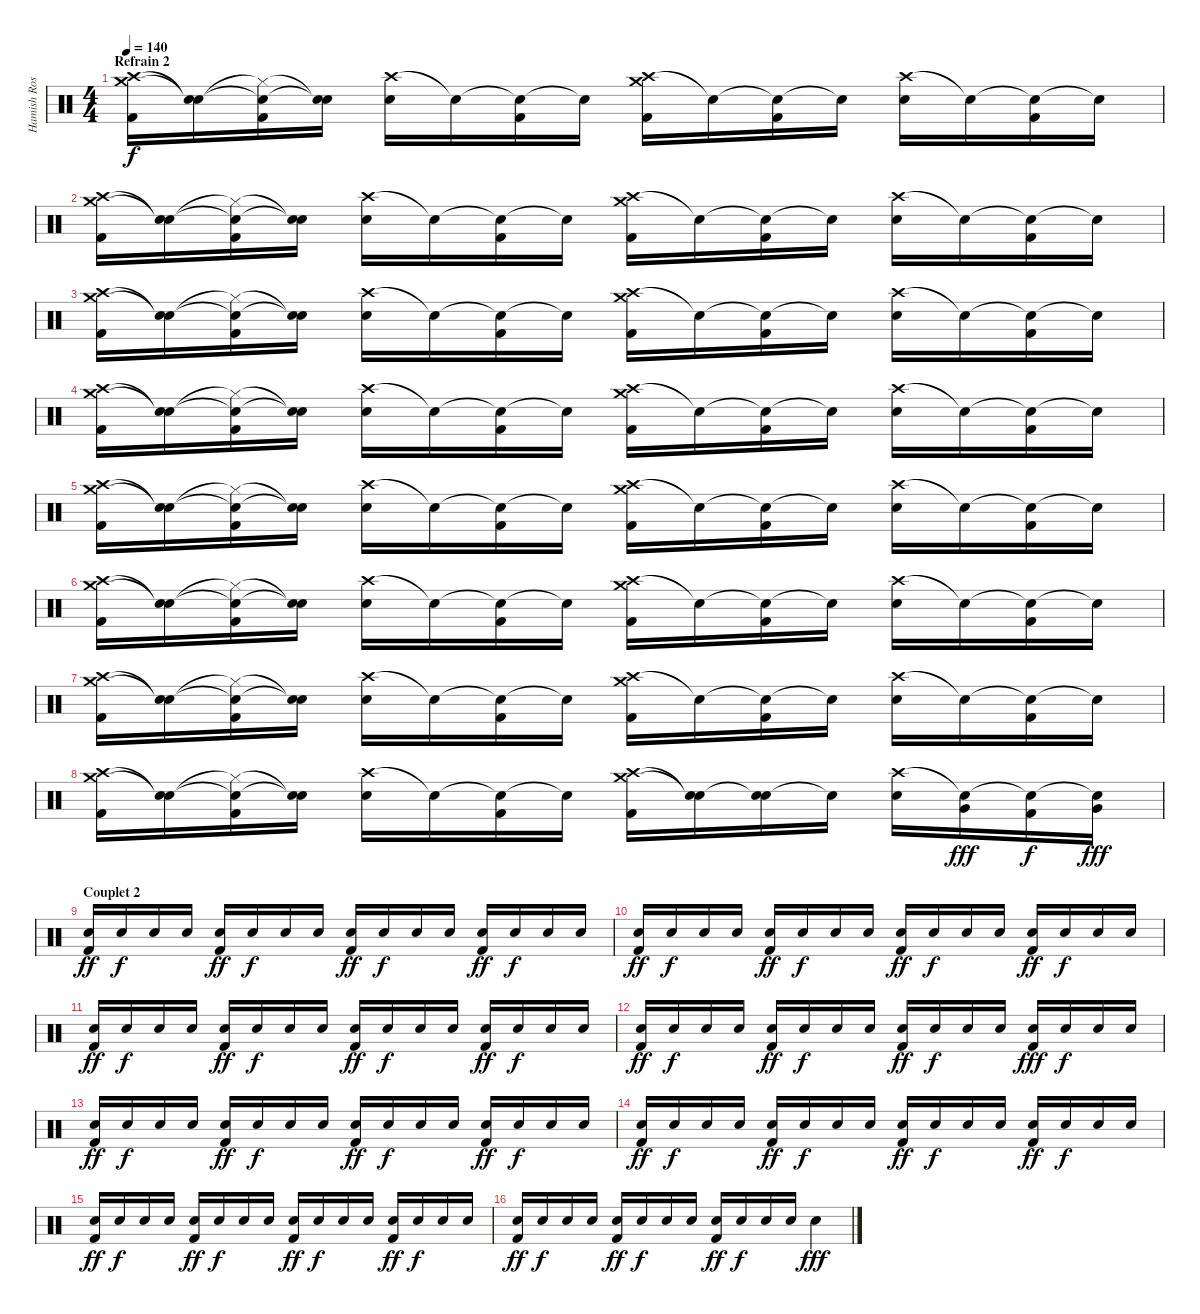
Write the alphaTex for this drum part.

\track ("Hamish Rosser" "Hamish Ros") {instrument percussion}
\staff {score}
\articulation defaults
\ts (4 4)
\section ("" "Refrain 2")
\tempo 140
\clef neutral
\ks c
("Crash high (hit)" "Crash medium (hit)" "Kick (hit) 2").16{dy f} ("Snare (hit)"{t} "Snare (hit)"{t}).16 ("Snare (hit)"{t} "Hi-Hat (closed)"{t} "Kick (hit) 2").16 ("Snare (hit)"{t} "Snare (hit)"{t}).16 ("Crash high (hit)" "Electric Snare (hit)").16 "Snare (hit)"{t}.16 ("Snare (hit)"{t} "Kick (hit) 2").16 "Snare (hit)"{t}.16 ("Crash high (hit)" "Crash medium (hit)" "Kick (hit) 2").16 "Snare (hit)"{t}.16 ("Snare (hit)"{t} "Kick (hit) 2").16 "Snare (hit)"{t}.16 ("Crash high (hit)" "Electric Snare (hit)").16 "Snare (hit)"{t}.16 ("Snare (hit)"{t} "Kick (hit) 2").16 "Snare (hit)"{t}.16 |
("Crash high (hit)" "Crash medium (hit)" "Kick (hit) 2").16 ("Snare (hit)"{t} "Snare (hit)"{t}).16 ("Snare (hit)"{t} "Hi-Hat (closed)"{t} "Kick (hit) 2").16 ("Snare (hit)"{t} "Snare (hit)"{t}).16 ("Crash high (hit)" "Electric Snare (hit)").16 "Snare (hit)"{t}.16 ("Snare (hit)"{t} "Kick (hit) 2").16 "Snare (hit)"{t}.16 ("Crash high (hit)" "Crash medium (hit)" "Kick (hit) 2").16 "Snare (hit)"{t}.16 ("Snare (hit)"{t} "Kick (hit) 2").16 "Snare (hit)"{t}.16 ("Crash high (hit)" "Electric Snare (hit)").16 "Snare (hit)"{t}.16 ("Snare (hit)"{t} "Kick (hit) 2").16 "Snare (hit)"{t}.16 |
("Crash high (hit)" "Crash medium (hit)" "Kick (hit) 2").16 ("Snare (hit)"{t} "Snare (hit)"{t}).16 ("Snare (hit)"{t} "Hi-Hat (closed)"{t} "Kick (hit) 2").16 ("Snare (hit)"{t} "Snare (hit)"{t}).16 ("Crash high (hit)" "Electric Snare (hit)").16 "Snare (hit)"{t}.16 ("Snare (hit)"{t} "Kick (hit) 2").16 "Snare (hit)"{t}.16 ("Crash high (hit)" "Crash medium (hit)" "Kick (hit) 2").16 "Snare (hit)"{t}.16 ("Snare (hit)"{t} "Kick (hit) 2").16 "Snare (hit)"{t}.16 ("Crash high (hit)" "Electric Snare (hit)").16 "Snare (hit)"{t}.16 ("Snare (hit)"{t} "Kick (hit) 2").16 "Snare (hit)"{t}.16 |
("Crash high (hit)" "Crash medium (hit)" "Kick (hit) 2").16 ("Snare (hit)"{t} "Snare (hit)"{t}).16 ("Snare (hit)"{t} "Hi-Hat (closed)"{t} "Kick (hit) 2").16 ("Snare (hit)"{t} "Snare (hit)"{t}).16 ("Crash high (hit)" "Electric Snare (hit)").16 "Snare (hit)"{t}.16 ("Snare (hit)"{t} "Kick (hit) 2").16 "Snare (hit)"{t}.16 ("Crash high (hit)" "Crash medium (hit)" "Kick (hit) 2").16 "Snare (hit)"{t}.16 ("Snare (hit)"{t} "Kick (hit) 2").16 "Snare (hit)"{t}.16 ("Crash high (hit)" "Electric Snare (hit)").16 "Snare (hit)"{t}.16 ("Snare (hit)"{t} "Kick (hit) 2").16 "Snare (hit)"{t}.16 |
("Crash high (hit)" "Crash medium (hit)" "Kick (hit) 2").16 ("Snare (hit)"{t} "Snare (hit)"{t}).16 ("Snare (hit)"{t} "Hi-Hat (closed)"{t} "Kick (hit) 2").16 ("Snare (hit)"{t} "Snare (hit)"{t}).16 ("Crash high (hit)" "Electric Snare (hit)").16 "Snare (hit)"{t}.16 ("Snare (hit)"{t} "Kick (hit) 2").16 "Snare (hit)"{t}.16 ("Crash high (hit)" "Crash medium (hit)" "Kick (hit) 2").16 "Snare (hit)"{t}.16 ("Snare (hit)"{t} "Kick (hit) 2").16 "Snare (hit)"{t}.16 ("Crash high (hit)" "Electric Snare (hit)").16 "Snare (hit)"{t}.16 ("Snare (hit)"{t} "Kick (hit) 2").16 "Snare (hit)"{t}.16 |
("Crash high (hit)" "Crash medium (hit)" "Kick (hit) 2").16 ("Snare (hit)"{t} "Snare (hit)"{t}).16 ("Snare (hit)"{t} "Hi-Hat (closed)"{t} "Kick (hit) 2").16 ("Snare (hit)"{t} "Snare (hit)"{t}).16 ("Crash high (hit)" "Electric Snare (hit)").16 "Snare (hit)"{t}.16 ("Snare (hit)"{t} "Kick (hit) 2").16 "Snare (hit)"{t}.16 ("Crash high (hit)" "Crash medium (hit)" "Kick (hit) 2").16 "Snare (hit)"{t}.16 ("Snare (hit)"{t} "Kick (hit) 2").16 "Snare (hit)"{t}.16 ("Crash high (hit)" "Electric Snare (hit)").16 "Snare (hit)"{t}.16 ("Snare (hit)"{t} "Kick (hit) 2").16 "Snare (hit)"{t}.16 |
("Crash high (hit)" "Crash medium (hit)" "Kick (hit) 2").16 ("Snare (hit)"{t} "Snare (hit)"{t}).16 ("Snare (hit)"{t} "Hi-Hat (closed)"{t} "Kick (hit) 2").16 ("Snare (hit)"{t} "Snare (hit)"{t}).16 ("Crash high (hit)" "Electric Snare (hit)").16 "Snare (hit)"{t}.16 ("Snare (hit)"{t} "Kick (hit) 2").16 "Snare (hit)"{t}.16 ("Crash high (hit)" "Crash medium (hit)" "Kick (hit) 2").16 "Snare (hit)"{t}.16 ("Snare (hit)"{t} "Kick (hit) 2").16 "Snare (hit)"{t}.16 ("Crash high (hit)" "Electric Snare (hit)").16 "Snare (hit)"{t}.16 ("Snare (hit)"{t} "Kick (hit) 2").16 "Snare (hit)"{t}.16 |
("Crash high (hit)" "Crash medium (hit)" "Kick (hit) 2").16 ("Snare (hit)"{t} "Snare (hit)"{t}).16 ("Snare (hit)"{t} "Hi-Hat (closed)"{t} "Kick (hit) 2").16 ("Snare (hit)"{t} "Snare (hit)"{t}).16 ("Crash high (hit)" "Electric Snare (hit)").16 "Snare (hit)"{t}.16 ("Snare (hit)"{t} "Kick (hit) 2").16 "Snare (hit)"{t}.16 ("Crash high (hit)" "Crash medium (hit)" "Kick (hit) 2").16 ("Snare (hit)"{t} "Snare (hit)"{t}).16 ("Snare (hit)"{t} "Electric Snare (hit)").16 "Snare (hit)"{t}.16 ("Crash high (hit)" "Electric Snare (hit)").16 ("Snare (hit)"{t} "Very Low Tom (hit)").16{dy fff} ("Snare (hit)"{t} "Kick (hit) 2").16{dy f} ("Snare (hit)"{t} "Very Low Tom (hit)").16{dy fff} |
\section ("" "Couplet 2")
("Electric Snare (hit)" "Kick (hit) 2").16{dy ff volume 0} "Electric Snare (hit)".16{dy f} "Electric Snare (hit)".16 "Electric Snare (hit)".16 ("Electric Snare (hit)" "Kick (hit) 2").16{dy ff} "Electric Snare (hit)".16{dy f} "Electric Snare (hit)".16 "Electric Snare (hit)".16 ("Electric Snare (hit)" "Kick (hit) 2").16{dy ff volume 1} "Electric Snare (hit)".16{dy f} "Electric Snare (hit)".16 "Electric Snare (hit)".16 ("Electric Snare (hit)" "Kick (hit) 2").16{dy ff} "Electric Snare (hit)".16{dy f} "Electric Snare (hit)".16 "Electric Snare (hit)".16 |
("Electric Snare (hit)" "Kick (hit) 2").16{dy ff volume 2} "Electric Snare (hit)".16{dy f} "Electric Snare (hit)".16 "Electric Snare (hit)".16 ("Electric Snare (hit)" "Kick (hit) 2").16{dy ff} "Electric Snare (hit)".16{dy f} "Electric Snare (hit)".16 "Electric Snare (hit)".16 ("Electric Snare (hit)" "Kick (hit) 2").16{dy ff volume 3} "Electric Snare (hit)".16{dy f} "Electric Snare (hit)".16 "Electric Snare (hit)".16 ("Electric Snare (hit)" "Kick (hit) 2").16{dy ff} "Electric Snare (hit)".16{dy f} "Electric Snare (hit)".16 "Electric Snare (hit)".16 |
("Electric Snare (hit)" "Kick (hit) 2").16{dy ff volume 4} "Electric Snare (hit)".16{dy f} "Electric Snare (hit)".16 "Electric Snare (hit)".16 ("Electric Snare (hit)" "Kick (hit) 2").16{dy ff} "Electric Snare (hit)".16{dy f} "Electric Snare (hit)".16 "Electric Snare (hit)".16 ("Electric Snare (hit)" "Kick (hit) 2").16{dy ff volume 5} "Electric Snare (hit)".16{dy f} "Electric Snare (hit)".16 "Electric Snare (hit)".16 ("Electric Snare (hit)" "Kick (hit) 2").16{dy ff} "Electric Snare (hit)".16{dy f} "Electric Snare (hit)".16 "Electric Snare (hit)".16 |
("Electric Snare (hit)" "Kick (hit) 2").16{dy ff volume 6} "Electric Snare (hit)".16{dy f} "Electric Snare (hit)".16 "Electric Snare (hit)".16 ("Electric Snare (hit)" "Kick (hit) 2").16{dy ff} "Electric Snare (hit)".16{dy f} "Electric Snare (hit)".16 "Electric Snare (hit)".16 ("Electric Snare (hit)" "Kick (hit) 2").16{dy ff volume 7} "Electric Snare (hit)".16{dy f} "Electric Snare (hit)".16 "Electric Snare (hit)".16 ("Electric Snare (hit)" "Kick (hit) 2").16{dy fff} "Electric Snare (hit)".16{dy f} "Electric Snare (hit)".16 "Electric Snare (hit)".16 |
("Electric Snare (hit)" "Kick (hit) 2").16{dy ff volume 8} "Electric Snare (hit)".16{dy f} "Electric Snare (hit)".16 "Electric Snare (hit)".16 ("Electric Snare (hit)" "Kick (hit) 2").16{dy ff} "Electric Snare (hit)".16{dy f} "Electric Snare (hit)".16 "Electric Snare (hit)".16 ("Electric Snare (hit)" "Kick (hit) 2").16{dy ff volume 9} "Electric Snare (hit)".16{dy f} "Electric Snare (hit)".16 "Electric Snare (hit)".16 ("Electric Snare (hit)" "Kick (hit) 2").16{dy ff} "Electric Snare (hit)".16{dy f} "Electric Snare (hit)".16 "Electric Snare (hit)".16 |
("Electric Snare (hit)" "Kick (hit) 2").16{dy ff volume 10} "Electric Snare (hit)".16{dy f} "Electric Snare (hit)".16 "Electric Snare (hit)".16 ("Electric Snare (hit)" "Kick (hit) 2").16{dy ff} "Electric Snare (hit)".16{dy f} "Electric Snare (hit)".16 "Electric Snare (hit)".16 ("Electric Snare (hit)" "Kick (hit) 2").16{dy ff volume 11} "Electric Snare (hit)".16{dy f} "Electric Snare (hit)".16 "Electric Snare (hit)".16 ("Electric Snare (hit)" "Kick (hit) 2").16{dy ff} "Electric Snare (hit)".16{dy f} "Electric Snare (hit)".16 "Electric Snare (hit)".16 |
("Electric Snare (hit)" "Kick (hit) 2").16{dy ff volume 12} "Electric Snare (hit)".16{dy f} "Electric Snare (hit)".16 "Electric Snare (hit)".16 ("Electric Snare (hit)" "Kick (hit) 2").16{dy ff} "Electric Snare (hit)".16{dy f} "Electric Snare (hit)".16 "Electric Snare (hit)".16 ("Electric Snare (hit)" "Kick (hit) 2").16{dy ff volume 13} "Electric Snare (hit)".16{dy f} "Electric Snare (hit)".16 "Electric Snare (hit)".16 ("Electric Snare (hit)" "Kick (hit) 2").16{dy ff} "Electric Snare (hit)".16{dy f} "Electric Snare (hit)".16 "Electric Snare (hit)".16 |
("Electric Snare (hit)" "Kick (hit) 2").16{dy ff volume 14} "Electric Snare (hit)".16{dy f} "Electric Snare (hit)".16 "Electric Snare (hit)".16 ("Electric Snare (hit)" "Kick (hit) 2").16{dy ff} "Electric Snare (hit)".16{dy f} "Electric Snare (hit)".16 "Electric Snare (hit)".16 ("Electric Snare (hit)" "Kick (hit) 2").16{dy ff volume 15} "Electric Snare (hit)".16{dy f} "Electric Snare (hit)".16 "Electric Snare (hit)".16 "Electric Snare (hit)".4{dy fff volume 16}
